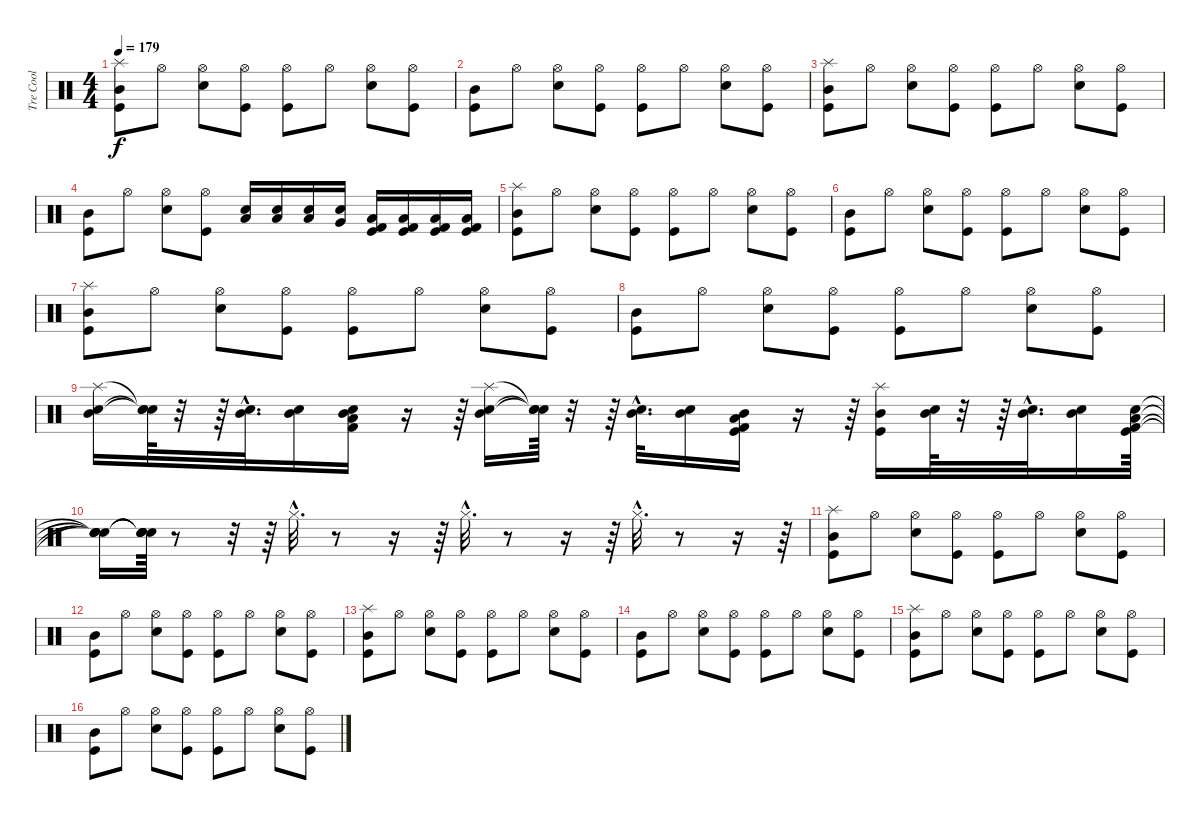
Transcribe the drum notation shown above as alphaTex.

\track ("Tre Cool" "Tre Cool") {instrument percussion}
\staff {score}
\articulation defaults
\ts (4 4)
\tempo 179
\clef neutral
\ks c
("Splash (hit)" "Mid Tom (hit)" "Kick (hit)").8{dy f} "Hi-Hat (open)".8 ("Hi-Hat (open)" "Snare (hit) 2").8 ("Hi-Hat (open)" "Kick (hit)").8 ("Hi-Hat (open)" "Kick (hit)").8 "Hi-Hat (open)".8 ("Hi-Hat (open)" "Snare (hit) 2").8 ("Hi-Hat (open)" "Kick (hit)").8 |
("Mid Tom (hit)" "Kick (hit)").8 "Hi-Hat (open)".8 ("Hi-Hat (open)" "Snare (hit) 2").8 ("Hi-Hat (open)" "Kick (hit)").8 ("Hi-Hat (open)" "Kick (hit)").8 "Hi-Hat (open)".8 ("Hi-Hat (open)" "Snare (hit) 2").8 ("Hi-Hat (open)" "Kick (hit)").8 |
("Splash (hit)" "Mid Tom (hit)" "Kick (hit)").8 "Hi-Hat (open)".8 ("Hi-Hat (open)" "Snare (hit) 2").8 ("Hi-Hat (open)" "Kick (hit)").8 ("Hi-Hat (open)" "Kick (hit)").8 "Hi-Hat (open)".8 ("Hi-Hat (open)" "Snare (hit) 2").8 ("Hi-Hat (open)" "Kick (hit)").8 |
("Mid Tom (hit)" "Kick (hit)").8 "Hi-Hat (open)".8 ("Hi-Hat (open)" "Snare (hit) 2").8 ("Hi-Hat (open)" "Kick (hit)").8 ("Electric Snare (hit)" "Low Tom (hit)").16 ("Electric Snare (hit)" "Low Tom (hit)").16 ("Electric Snare (hit)" "Low Tom (hit)").16 ("Electric Snare (hit)" "Very Low Tom (hit)").16 ("Kick (hit)" "Kick (hit) 2" "Low Floor Tom (hit)").16 ("Kick (hit)" "Kick (hit) 2" "Low Floor Tom (hit)").16 ("Kick (hit)" "Low Floor Tom (hit)" "Kick (hit) 2").16 ("Kick (hit)" "Kick (hit) 2" "Low Floor Tom (hit)").16 |
("Splash (hit)" "Mid Tom (hit)" "Kick (hit)").8 "Hi-Hat (open)".8 ("Hi-Hat (open)" "Snare (hit) 2").8 ("Hi-Hat (open)" "Kick (hit)").8 ("Hi-Hat (open)" "Kick (hit)").8 "Hi-Hat (open)".8 ("Hi-Hat (open)" "Snare (hit) 2").8 ("Hi-Hat (open)" "Kick (hit)").8 |
("Mid Tom (hit)" "Kick (hit)").8 "Hi-Hat (open)".8 ("Hi-Hat (open)" "Snare (hit) 2").8 ("Hi-Hat (open)" "Kick (hit)").8 ("Hi-Hat (open)" "Kick (hit)").8 "Hi-Hat (open)".8 ("Hi-Hat (open)" "Snare (hit) 2").8 ("Hi-Hat (open)" "Kick (hit)").8 |
("Splash (hit)" "Mid Tom (hit)" "Kick (hit)").8 "Hi-Hat (open)".8 ("Hi-Hat (open)" "Snare (hit) 2").8 ("Hi-Hat (open)" "Kick (hit)").8 ("Hi-Hat (open)" "Kick (hit)").8 "Hi-Hat (open)".8 ("Hi-Hat (open)" "Snare (hit) 2").8 ("Hi-Hat (open)" "Kick (hit)").8 |
("Mid Tom (hit)" "Kick (hit)").8 "Hi-Hat (open)".8 ("Hi-Hat (open)" "Snare (hit) 2").8 ("Hi-Hat (open)" "Kick (hit)").8 ("Hi-Hat (open)" "Kick (hit)").8 "Hi-Hat (open)".8 ("Hi-Hat (open)" "Snare (hit) 2").8 ("Hi-Hat (open)" "Kick (hit)").8 |
("Mid Tom (hit)" "Snare (hit) 2" "Splash (hit)").16 ("Snare (hit)"{t} "Snare (hit)"{t} "Snare (hit)"{t}).64 r.32 r.64 ("Mid Tom (hit)"{hac} "Snare (hit) 2"{hac}).32{d} ("Mid Tom (hit)" "Snare (hit) 2").16 ("Mid Tom (hit)" "Kick (hit) 2" "Snare (hit) 2" "Low Floor Tom (hit)").16 r.16 r.64 ("Mid Tom (hit)" "Snare (hit) 2" "Splash (hit)").16 ("Snare (hit)"{t} "Snare (hit)"{t} "Snare (hit)"{t}).64 r.32 r.64 ("Mid Tom (hit)"{hac} "Snare (hit) 2"{hac}).32{d} ("Mid Tom (hit)" "Snare (hit) 2").16 ("Mid Tom (hit)" "Low Floor Tom (hit)" "Kick (hit)" "Kick (hit) 2").16 r.16 r.64 ("Mid Tom (hit)" "Kick (hit)" "Splash (hit)").16 ("Mid Tom (hit)" "Snare (hit) 2").64 r.32 r.64 ("Mid Tom (hit)"{hac} "Snare (hit) 2"{hac}).32{d} ("Mid Tom (hit)" "Snare (hit) 2").16 ("Kick (hit)" "Kick (hit) 2" "Snare (hit) 2" "Low Tom (hit)").64 |
("Snare (hit)"{t} "Snare (hit)"{t} "Snare (hit)"{t} "Snare (hit)"{t}).16 ("Snare (hit)"{t} "Snare (hit)"{t} "Snare (hit)"{t} "Snare (hit)"{t}).64 r.8 r.32 r.64 "Hi-Hat (closed)"{hac}.32{d} r.8 r.16 r.64 "Hi-Hat (closed)"{hac}.32{d} r.8 r.16 r.64 "Hi-Hat (closed)"{hac}.32{d} r.8 r.16 r.64 |
("Splash (hit)" "Mid Tom (hit)" "Kick (hit)").8 "Hi-Hat (open)".8 ("Hi-Hat (open)" "Snare (hit) 2").8 ("Hi-Hat (open)" "Kick (hit)").8 ("Hi-Hat (open)" "Kick (hit)").8 "Hi-Hat (open)".8 ("Hi-Hat (open)" "Snare (hit) 2").8 ("Hi-Hat (open)" "Kick (hit)").8 |
("Mid Tom (hit)" "Kick (hit)").8 "Hi-Hat (open)".8 ("Hi-Hat (open)" "Snare (hit) 2").8 ("Hi-Hat (open)" "Kick (hit)").8 ("Hi-Hat (open)" "Kick (hit)").8 "Hi-Hat (open)".8 ("Hi-Hat (open)" "Snare (hit) 2").8 ("Hi-Hat (open)" "Kick (hit)").8 |
("Splash (hit)" "Mid Tom (hit)" "Kick (hit)").8 "Hi-Hat (open)".8 ("Hi-Hat (open)" "Snare (hit) 2").8 ("Hi-Hat (open)" "Kick (hit)").8 ("Hi-Hat (open)" "Kick (hit)").8 "Hi-Hat (open)".8 ("Hi-Hat (open)" "Snare (hit) 2").8 ("Hi-Hat (open)" "Kick (hit)").8 |
("Mid Tom (hit)" "Kick (hit)").8 "Hi-Hat (open)".8 ("Hi-Hat (open)" "Snare (hit) 2").8 ("Hi-Hat (open)" "Kick (hit)").8 ("Hi-Hat (open)" "Kick (hit)").8 "Hi-Hat (open)".8 ("Hi-Hat (open)" "Snare (hit) 2").8 ("Hi-Hat (open)" "Kick (hit)").8 |
("Splash (hit)" "Mid Tom (hit)" "Kick (hit)").8 "Hi-Hat (open)".8 ("Hi-Hat (open)" "Snare (hit) 2").8 ("Hi-Hat (open)" "Kick (hit)").8 ("Hi-Hat (open)" "Kick (hit)").8 "Hi-Hat (open)".8 ("Hi-Hat (open)" "Snare (hit) 2").8 ("Hi-Hat (open)" "Kick (hit)").8 |
("Mid Tom (hit)" "Kick (hit)").8 "Hi-Hat (open)".8 ("Hi-Hat (open)" "Snare (hit) 2").8 ("Hi-Hat (open)" "Kick (hit)").8 ("Hi-Hat (open)" "Kick (hit)").8 "Hi-Hat (open)".8 ("Hi-Hat (open)" "Snare (hit) 2").8 ("Hi-Hat (open)" "Kick (hit)").8
